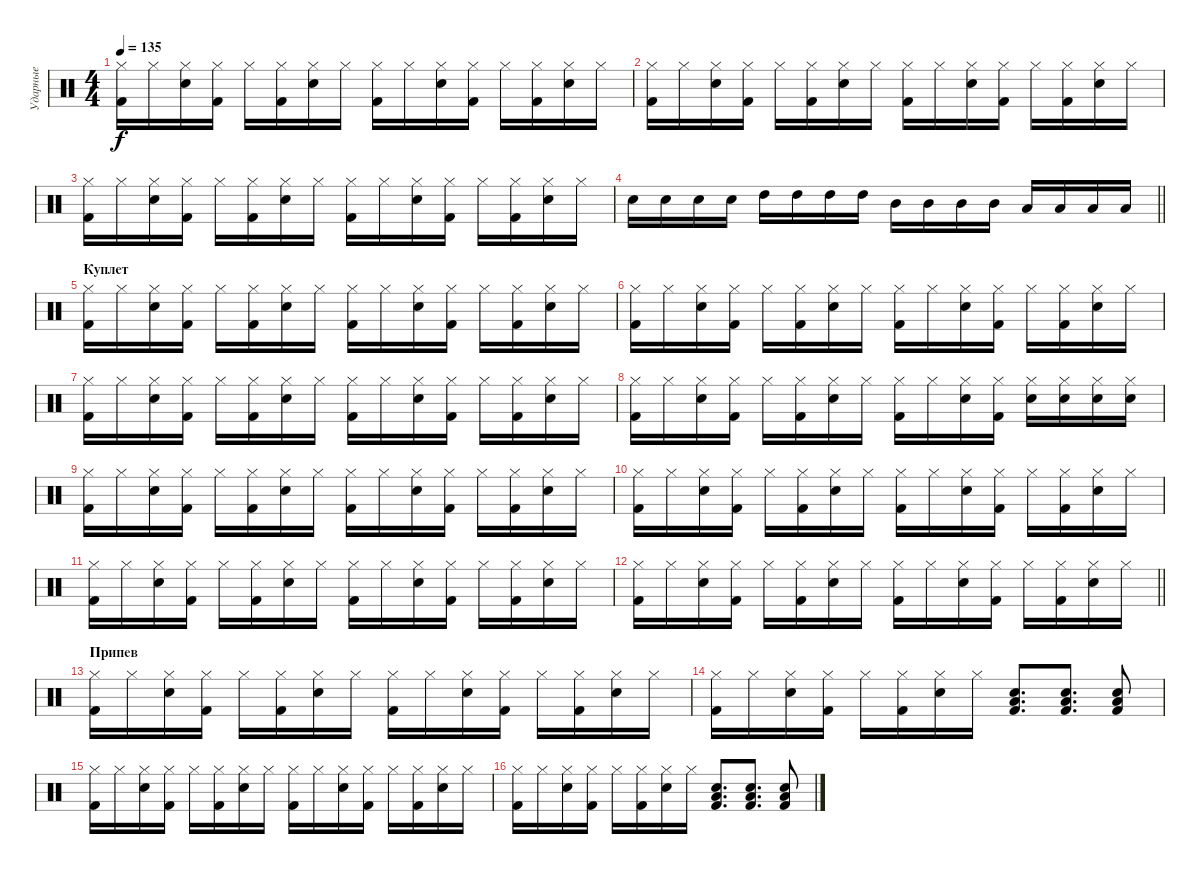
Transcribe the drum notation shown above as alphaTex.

\track ("Ударные" "Ударные") {instrument percussion}
\staff {score}
\articulation defaults
\ts (4 4)
\tempo 135
\clef neutral
\ks c
("Hi-Hat (closed)" "Kick (hit) 2").16{dy f} "Hi-Hat (closed)".16 ("Hi-Hat (closed)" "Snare (hit) 2").16 ("Hi-Hat (closed)" "Kick (hit) 2").16 "Hi-Hat (closed)".16 ("Hi-Hat (closed)" "Kick (hit) 2").16 ("Hi-Hat (closed)" "Snare (hit) 2").16 "Hi-Hat (closed)".16 ("Hi-Hat (closed)" "Kick (hit) 2").16 "Hi-Hat (closed)".16 ("Hi-Hat (closed)" "Snare (hit) 2").16 ("Hi-Hat (closed)" "Kick (hit) 2").16 "Hi-Hat (closed)".16 ("Hi-Hat (closed)" "Kick (hit) 2").16 ("Hi-Hat (closed)" "Snare (hit) 2").16 "Hi-Hat (closed)".16 |
("Hi-Hat (closed)" "Kick (hit) 2").16 "Hi-Hat (closed)".16 ("Hi-Hat (closed)" "Snare (hit) 2").16 ("Hi-Hat (closed)" "Kick (hit) 2").16 "Hi-Hat (closed)".16 ("Hi-Hat (closed)" "Kick (hit) 2").16 ("Hi-Hat (closed)" "Snare (hit) 2").16 "Hi-Hat (closed)".16 ("Hi-Hat (closed)" "Kick (hit) 2").16 "Hi-Hat (closed)".16 ("Hi-Hat (closed)" "Snare (hit) 2").16 ("Hi-Hat (closed)" "Kick (hit) 2").16 "Hi-Hat (closed)".16 ("Hi-Hat (closed)" "Kick (hit) 2").16 ("Hi-Hat (closed)" "Snare (hit) 2").16 "Hi-Hat (closed)".16 |
("Hi-Hat (closed)" "Kick (hit) 2").16 "Hi-Hat (closed)".16 ("Hi-Hat (closed)" "Snare (hit) 2").16 ("Hi-Hat (closed)" "Kick (hit) 2").16 "Hi-Hat (closed)".16 ("Hi-Hat (closed)" "Kick (hit) 2").16 ("Hi-Hat (closed)" "Snare (hit) 2").16 "Hi-Hat (closed)".16 ("Hi-Hat (closed)" "Kick (hit) 2").16 "Hi-Hat (closed)".16 ("Hi-Hat (closed)" "Snare (hit) 2").16 ("Hi-Hat (closed)" "Kick (hit) 2").16 "Hi-Hat (closed)".16 ("Hi-Hat (closed)" "Kick (hit) 2").16 ("Hi-Hat (closed)" "Snare (hit) 2").16 "Hi-Hat (closed)".16 |
\barLineRight lightlight "Snare (hit) 2".16 "Snare (hit) 2".16 "Snare (hit) 2".16 "Snare (hit) 2".16 "High Tom (hit)".16 "High Tom (hit)".16 "High Tom (hit)".16 "High Tom (hit)".16 "Mid Tom (hit)".16 "Mid Tom (hit)".16 "Mid Tom (hit)".16 "Mid Tom (hit)".16 "Low Tom (hit)".16 "Low Tom (hit)".16 "Low Tom (hit)".16 "Low Tom (hit)".16
|
\section ("" "Куплет")
("Hi-Hat (closed)" "Kick (hit) 2").16 "Hi-Hat (closed)".16 ("Hi-Hat (closed)" "Snare (hit) 2").16 ("Hi-Hat (closed)" "Kick (hit) 2").16 "Hi-Hat (closed)".16 ("Hi-Hat (closed)" "Kick (hit) 2").16 ("Hi-Hat (closed)" "Snare (hit) 2").16 "Hi-Hat (closed)".16 ("Hi-Hat (closed)" "Kick (hit) 2").16 "Hi-Hat (closed)".16 ("Hi-Hat (closed)" "Snare (hit) 2").16 ("Hi-Hat (closed)" "Kick (hit) 2").16 "Hi-Hat (closed)".16 ("Hi-Hat (closed)" "Kick (hit) 2").16 ("Hi-Hat (closed)" "Snare (hit) 2").16 "Hi-Hat (closed)".16 |
("Hi-Hat (closed)" "Kick (hit) 2").16 "Hi-Hat (closed)".16 ("Hi-Hat (closed)" "Snare (hit) 2").16 ("Hi-Hat (closed)" "Kick (hit) 2").16 "Hi-Hat (closed)".16 ("Hi-Hat (closed)" "Kick (hit) 2").16 ("Hi-Hat (closed)" "Snare (hit) 2").16 "Hi-Hat (closed)".16 ("Hi-Hat (closed)" "Kick (hit) 2").16 "Hi-Hat (closed)".16 ("Hi-Hat (closed)" "Snare (hit) 2").16 ("Hi-Hat (closed)" "Kick (hit) 2").16 "Hi-Hat (closed)".16 ("Hi-Hat (closed)" "Kick (hit) 2").16 ("Hi-Hat (closed)" "Snare (hit) 2").16 "Hi-Hat (closed)".16 |
("Hi-Hat (closed)" "Kick (hit) 2").16 "Hi-Hat (closed)".16 ("Hi-Hat (closed)" "Snare (hit) 2").16 ("Hi-Hat (closed)" "Kick (hit) 2").16 "Hi-Hat (closed)".16 ("Hi-Hat (closed)" "Kick (hit) 2").16 ("Hi-Hat (closed)" "Snare (hit) 2").16 "Hi-Hat (closed)".16 ("Hi-Hat (closed)" "Kick (hit) 2").16 "Hi-Hat (closed)".16 ("Hi-Hat (closed)" "Snare (hit) 2").16 ("Hi-Hat (closed)" "Kick (hit) 2").16 "Hi-Hat (closed)".16 ("Hi-Hat (closed)" "Kick (hit) 2").16 ("Hi-Hat (closed)" "Snare (hit) 2").16 "Hi-Hat (closed)".16 |
("Hi-Hat (closed)" "Kick (hit) 2").16 "Hi-Hat (closed)".16 ("Hi-Hat (closed)" "Snare (hit) 2").16 ("Hi-Hat (closed)" "Kick (hit) 2").16 "Hi-Hat (closed)".16 ("Hi-Hat (closed)" "Kick (hit) 2").16 ("Hi-Hat (closed)" "Snare (hit) 2").16 "Hi-Hat (closed)".16 ("Hi-Hat (closed)" "Kick (hit) 2").16 "Hi-Hat (closed)".16 ("Hi-Hat (closed)" "Snare (hit) 2").16 ("Hi-Hat (closed)" "Kick (hit) 2").16 ("Hi-Hat (closed)" "Snare (hit) 2").16 ("Hi-Hat (closed)" "Snare (hit) 2").16 ("Hi-Hat (closed)" "Snare (hit) 2").16 ("Hi-Hat (closed)" "Snare (hit) 2").16 |
("Hi-Hat (closed)" "Kick (hit) 2").16 "Hi-Hat (closed)".16 ("Hi-Hat (closed)" "Snare (hit) 2").16 ("Hi-Hat (closed)" "Kick (hit) 2").16 "Hi-Hat (closed)".16 ("Hi-Hat (closed)" "Kick (hit) 2").16 ("Hi-Hat (closed)" "Snare (hit) 2").16 "Hi-Hat (closed)".16 ("Hi-Hat (closed)" "Kick (hit) 2").16 "Hi-Hat (closed)".16 ("Hi-Hat (closed)" "Snare (hit) 2").16 ("Hi-Hat (closed)" "Kick (hit) 2").16 "Hi-Hat (closed)".16 ("Hi-Hat (closed)" "Kick (hit) 2").16 ("Hi-Hat (closed)" "Snare (hit) 2").16 "Hi-Hat (closed)".16 |
("Hi-Hat (closed)" "Kick (hit) 2").16 "Hi-Hat (closed)".16 ("Hi-Hat (closed)" "Snare (hit) 2").16 ("Hi-Hat (closed)" "Kick (hit) 2").16 "Hi-Hat (closed)".16 ("Hi-Hat (closed)" "Kick (hit) 2").16 ("Hi-Hat (closed)" "Snare (hit) 2").16 "Hi-Hat (closed)".16 ("Hi-Hat (closed)" "Kick (hit) 2").16 "Hi-Hat (closed)".16 ("Hi-Hat (closed)" "Snare (hit) 2").16 ("Hi-Hat (closed)" "Kick (hit) 2").16 "Hi-Hat (closed)".16 ("Hi-Hat (closed)" "Kick (hit) 2").16 ("Hi-Hat (closed)" "Snare (hit) 2").16 "Hi-Hat (closed)".16 |
("Hi-Hat (closed)" "Kick (hit) 2").16 "Hi-Hat (closed)".16 ("Hi-Hat (closed)" "Snare (hit) 2").16 ("Hi-Hat (closed)" "Kick (hit) 2").16 "Hi-Hat (closed)".16 ("Hi-Hat (closed)" "Kick (hit) 2").16 ("Hi-Hat (closed)" "Snare (hit) 2").16 "Hi-Hat (closed)".16 ("Hi-Hat (closed)" "Kick (hit) 2").16 "Hi-Hat (closed)".16 ("Hi-Hat (closed)" "Snare (hit) 2").16 ("Hi-Hat (closed)" "Kick (hit) 2").16 "Hi-Hat (closed)".16 ("Hi-Hat (closed)" "Kick (hit) 2").16 ("Hi-Hat (closed)" "Snare (hit) 2").16 "Hi-Hat (closed)".16 |
\barLineRight lightlight
("Hi-Hat (closed)" "Kick (hit) 2").16 "Hi-Hat (closed)".16 ("Hi-Hat (closed)" "Snare (hit) 2").16 ("Hi-Hat (closed)" "Kick (hit) 2").16 "Hi-Hat (closed)".16 ("Hi-Hat (closed)" "Kick (hit) 2").16 ("Hi-Hat (closed)" "Snare (hit) 2").16 "Hi-Hat (closed)".16 ("Hi-Hat (closed)" "Kick (hit) 2").16 "Hi-Hat (closed)".16 ("Hi-Hat (closed)" "Snare (hit) 2").16 ("Hi-Hat (closed)" "Kick (hit) 2").16 "Hi-Hat (closed)".16 ("Hi-Hat (closed)" "Kick (hit) 2").16 ("Hi-Hat (closed)" "Snare (hit) 2").16 "Hi-Hat (closed)".16 |
\section ("" "Припев")
("Hi-Hat (closed)" "Kick (hit) 2").16 "Hi-Hat (closed)".16 ("Hi-Hat (closed)" "Snare (hit) 2").16 ("Hi-Hat (closed)" "Kick (hit) 2").16 "Hi-Hat (closed)".16 ("Hi-Hat (closed)" "Kick (hit) 2").16 ("Hi-Hat (closed)" "Snare (hit) 2").16 "Hi-Hat (closed)".16 ("Hi-Hat (closed)" "Kick (hit) 2").16 "Hi-Hat (closed)".16 ("Hi-Hat (closed)" "Snare (hit) 2").16 ("Hi-Hat (closed)" "Kick (hit) 2").16 "Hi-Hat (closed)".16 ("Hi-Hat (closed)" "Kick (hit) 2").16 ("Hi-Hat (closed)" "Snare (hit) 2").16 "Hi-Hat (closed)".16 |
("Hi-Hat (closed)" "Kick (hit) 2").16 "Hi-Hat (closed)".16 ("Hi-Hat (closed)" "Snare (hit) 2").16 ("Hi-Hat (closed)" "Kick (hit) 2").16 "Hi-Hat (closed)".16 ("Hi-Hat (closed)" "Kick (hit) 2").16 ("Hi-Hat (closed)" "Snare (hit) 2").16 "Hi-Hat (closed)".16 ("Snare (hit) 2" "Low Tom (hit)" "Kick (hit) 2").8{d} ("Snare (hit) 2" "Low Tom (hit)" "Kick (hit) 2").8{d} ("Snare (hit) 2" "Low Tom (hit)" "Kick (hit) 2").8 |
("Hi-Hat (closed)" "Kick (hit) 2").16 "Hi-Hat (closed)".16 ("Hi-Hat (closed)" "Snare (hit) 2").16 ("Hi-Hat (closed)" "Kick (hit) 2").16 "Hi-Hat (closed)".16 ("Hi-Hat (closed)" "Kick (hit) 2").16 ("Hi-Hat (closed)" "Snare (hit) 2").16 "Hi-Hat (closed)".16 ("Hi-Hat (closed)" "Kick (hit) 2").16 "Hi-Hat (closed)".16 ("Hi-Hat (closed)" "Snare (hit) 2").16 ("Hi-Hat (closed)" "Kick (hit) 2").16 "Hi-Hat (closed)".16 ("Hi-Hat (closed)" "Kick (hit) 2").16 ("Hi-Hat (closed)" "Snare (hit) 2").16 "Hi-Hat (closed)".16 |
("Hi-Hat (closed)" "Kick (hit) 2").16 "Hi-Hat (closed)".16 ("Hi-Hat (closed)" "Snare (hit) 2").16 ("Hi-Hat (closed)" "Kick (hit) 2").16 "Hi-Hat (closed)".16 ("Hi-Hat (closed)" "Kick (hit) 2").16 ("Hi-Hat (closed)" "Snare (hit) 2").16 "Hi-Hat (closed)".16 ("Snare (hit) 2" "Low Tom (hit)" "Kick (hit) 2").8{d} ("Snare (hit) 2" "Low Tom (hit)" "Kick (hit) 2").8{d} ("Snare (hit) 2" "Low Tom (hit)" "Kick (hit) 2").8
